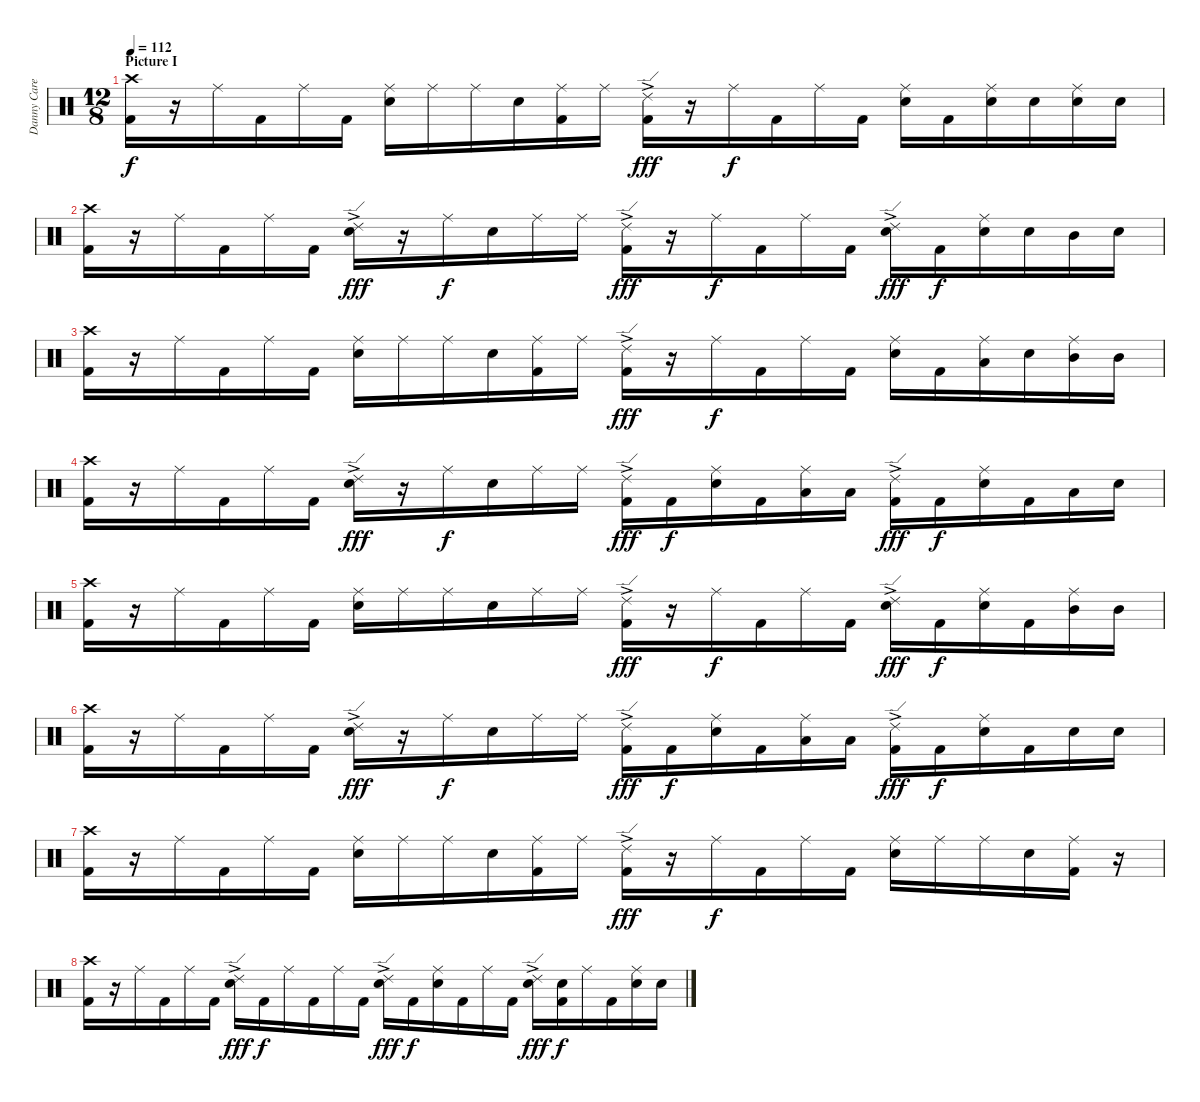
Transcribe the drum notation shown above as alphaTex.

\track ("Danny Carey" "Danny Care") {instrument percussion}
\staff {score}
\articulation defaults
\ts (12 8)
\section ("" "Picture I")
\tempo 112
\clef neutral
\ks c
("Crash high (hit)" "Kick (hit) 2").16{dy f volume 14} r.16 "Ride (middle)".16 "Kick (hit) 2".16 "Ride (middle)".16 "Kick (hit) 2".16 ("Ride (middle)" "Electric Snare (hit)").16 "Ride (middle)".16 "Ride (middle)".16 "Electric Snare (hit)".16 ("Ride (middle)" "Kick (hit) 2").16 "Ride (middle)".16 ("Ride (edge) 2"{ac} "Kick (hit) 2").16{dy fff} r.16 "Ride (middle)".16{dy f} "Kick (hit) 2".16 "Ride (middle)".16 "Kick (hit) 2".16 ("Ride (middle)" "Electric Snare (hit)").16 "Kick (hit) 2".16 ("Ride (middle)" "Electric Snare (hit)").16 "Electric Snare (hit)".16 ("Ride (middle)" "Electric Snare (hit)").16 "Electric Snare (hit)".16 |
("Crash high (hit)" "Kick (hit) 2").16 r.16 "Ride (middle)".16 "Kick (hit) 2".16 "Ride (middle)".16 "Kick (hit) 2".16 ("Ride (edge) 2"{ac} "Electric Snare (hit)").16{dy fff} r.16 "Ride (middle)".16{dy f} "Electric Snare (hit)".16 "Ride (middle)".16 "Ride (middle)".16 ("Ride (edge) 2"{ac} "Kick (hit) 2").16{dy fff} r.16 "Ride (middle)".16{dy f} "Kick (hit) 2".16 "Ride (middle)".16 "Kick (hit) 2".16 ("Ride (edge) 2"{ac} "Electric Snare (hit)").16{dy fff} "Kick (hit) 2".16{dy f} ("Ride (middle)" "Electric Snare (hit)").16 "Electric Snare (hit)".16 "Mid Tom (hit)".16 "Electric Snare (hit)".16 |
("Crash high (hit)" "Kick (hit) 2").16 r.16 "Ride (middle)".16 "Kick (hit) 2".16 "Ride (middle)".16 "Kick (hit) 2".16 ("Ride (middle)" "Electric Snare (hit)").16 "Ride (middle)".16 "Ride (middle)".16 "Electric Snare (hit)".16 ("Ride (middle)" "Kick (hit) 2").16 "Ride (middle)".16 ("Ride (edge) 2"{ac} "Kick (hit) 2").16{dy fff} r.16 "Ride (middle)".16{dy f} "Kick (hit) 2".16 "Ride (middle)".16 "Kick (hit) 2".16 ("Ride (middle)" "Electric Snare (hit)").16 "Kick (hit) 2".16 ("Ride (middle)" "Low Tom (hit)").16 "Electric Snare (hit)".16 ("Ride (middle)" "Mid Tom (hit)").16 "Mid Tom (hit)".16 |
("Crash high (hit)" "Kick (hit) 2").16 r.16 "Ride (middle)".16 "Kick (hit) 2".16 "Ride (middle)".16 "Kick (hit) 2".16 ("Ride (edge) 2"{ac} "Electric Snare (hit)").16{dy fff} r.16 "Ride (middle)".16{dy f} "Electric Snare (hit)".16 "Ride (middle)".16 "Ride (middle)".16 ("Ride (edge) 2"{ac} "Kick (hit) 2").16{dy fff} "Kick (hit) 2".16{dy f} ("Ride (middle)" "Electric Snare (hit)").16 "Kick (hit) 2".16 ("Ride (middle)" "Low Tom (hit)").16 "Low Tom (hit)".16 ("Ride (edge) 2"{ac} "Kick (hit) 2").16{dy fff} "Kick (hit) 2".16{dy f} ("Ride (middle)" "Electric Snare (hit)").16 "Kick (hit) 2".16 "Low Tom (hit)".16 "Electric Snare (hit)".16 |
("Crash high (hit)" "Kick (hit) 2").16 r.16 "Ride (middle)".16 "Kick (hit) 2".16 "Ride (middle)".16 "Kick (hit) 2".16 ("Ride (middle)" "Electric Snare (hit)").16 "Ride (middle)".16 "Ride (middle)".16 "Electric Snare (hit)".16 "Ride (middle)".16 "Ride (middle)".16 ("Ride (edge) 2"{ac} "Kick (hit) 2").16{dy fff} r.16 "Ride (middle)".16{dy f} "Kick (hit) 2".16 "Ride (middle)".16 "Kick (hit) 2".16 ("Ride (edge) 2"{ac} "Electric Snare (hit)").16{dy fff} "Kick (hit) 2".16{dy f} ("Ride (middle)" "Electric Snare (hit)").16 "Kick (hit) 2".16 ("Ride (middle)" "Mid Tom (hit)").16 "Mid Tom (hit)".16 |
("Crash high (hit)" "Kick (hit) 2").16 r.16 "Ride (middle)".16 "Kick (hit) 2".16 "Ride (middle)".16 "Kick (hit) 2".16 ("Ride (edge) 2"{ac} "Electric Snare (hit)").16{dy fff} r.16 "Ride (middle)".16{dy f} "Electric Snare (hit)".16 "Ride (middle)".16 "Ride (middle)".16 ("Ride (edge) 2"{ac} "Kick (hit) 2").16{dy fff} "Kick (hit) 2".16{dy f} ("Ride (middle)" "Electric Snare (hit)").16 "Kick (hit) 2".16 ("Ride (middle)" "Low Tom (hit)").16 "Low Tom (hit)".16 ("Ride (edge) 2"{ac} "Kick (hit) 2").16{dy fff} "Kick (hit) 2".16{dy f} ("Ride (middle)" "Electric Snare (hit)").16 "Kick (hit) 2".16 "Electric Snare (hit)".16 "Electric Snare (hit)".16 |
("Crash high (hit)" "Kick (hit) 2").16 r.16 "Ride (middle)".16 "Kick (hit) 2".16 "Ride (middle)".16 "Kick (hit) 2".16 ("Ride (middle)" "Electric Snare (hit)").16 "Ride (middle)".16 "Ride (middle)".16 "Electric Snare (hit)".16 ("Ride (middle)" "Kick (hit) 2").16 "Ride (middle)".16 ("Ride (edge) 2"{ac} "Kick (hit) 2").16{dy fff} r.16 "Ride (middle)".16{dy f} "Kick (hit) 2".16 "Ride (middle)".16 "Kick (hit) 2".16 ("Ride (middle)" "Electric Snare (hit)").16 "Ride (middle)".16 "Ride (middle)".16 "Electric Snare (hit)".16 ("Ride (middle)" "Kick (hit) 2").16 r.16 |
("Crash high (hit)" "Kick (hit) 2").16 r.16 "Ride (middle)".16 "Kick (hit) 2".16 "Ride (middle)".16 "Kick (hit) 2".16 ("Ride (edge) 2"{ac} "Electric Snare (hit)").16{dy fff} "Kick (hit) 2".16{dy f} "Ride (middle)".16 "Kick (hit) 2".16 "Ride (middle)".16 "Kick (hit) 2".16 ("Ride (edge) 2"{ac} "Electric Snare (hit)").16{dy fff} "Kick (hit) 2".16{dy f} ("Ride (middle)" "Electric Snare (hit)").16 "Kick (hit) 2".16 "Ride (middle)".16 "Kick (hit) 2".16 ("Ride (edge) 2"{ac} "Electric Snare (hit)").16{dy fff} ("Electric Snare (hit)" "Kick (hit) 2").16{dy f} "Ride (middle)".16 "Kick (hit) 2".16 ("Ride (middle)" "Electric Snare (hit)").16 "Electric Snare (hit)".16
